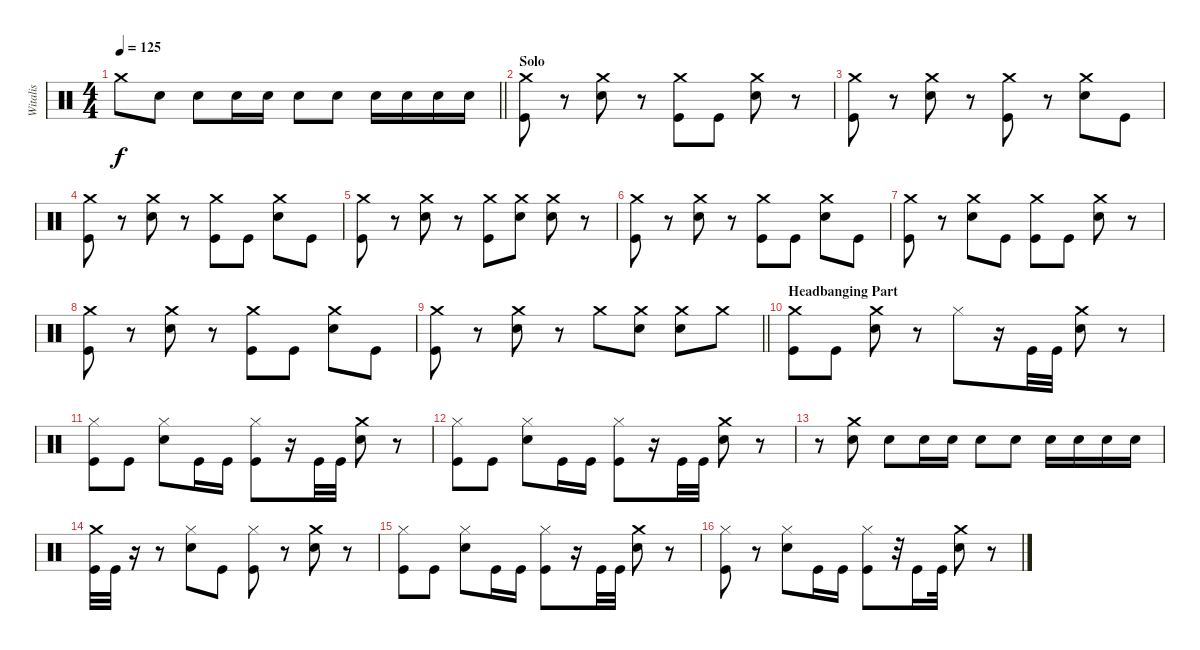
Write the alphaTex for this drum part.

\track ("Witalis" "Witalis") {instrument percussion}
\staff {score}
\articulation defaults
\ts (4 4)
\tempo 125
\clef neutral
\barLineRight lightlight
\ks c "Crash medium (hit)".8{dy f} "Snare (hit) 2".8 "Snare (hit) 2".8 "Snare (hit) 2".16 "Snare (hit) 2".16 "Snare (hit) 2".8 "Snare (hit) 2".8 "Snare (hit) 2".16 "Snare (hit) 2".16 "Snare (hit) 2".16 "Snare (hit) 2".16
|
\section ("" "Solo")
("Kick (hit)" "Crash medium (hit)").8 r.8 ("Snare (hit) 2" "Crash medium (hit)").8 r.8 ("Kick (hit)" "Crash medium (hit)").8 "Kick (hit)".8 ("Snare (hit) 2" "Crash medium (hit)").8 r.8 |
("Kick (hit)" "Crash medium (hit)").8 r.8 ("Snare (hit) 2" "Crash medium (hit)").8 r.8 ("Kick (hit)" "Crash medium (hit)").8 r.8 ("Snare (hit) 2" "Crash medium (hit)").8 "Kick (hit)".8 |
("Kick (hit)" "Crash medium (hit)").8 r.8 ("Snare (hit) 2" "Crash medium (hit)").8 r.8 ("Kick (hit)" "Crash medium (hit)").8 "Kick (hit)".8 ("Snare (hit) 2" "Crash medium (hit)").8 "Kick (hit)".8 |
("Kick (hit)" "Crash medium (hit)").8 r.8 ("Snare (hit) 2" "Crash medium (hit)").8 r.8 ("Kick (hit)" "Crash medium (hit)").8 ("Snare (hit) 2" "Crash medium (hit)").8 ("Snare (hit) 2" "Crash medium (hit)").8 r.8 |
("Kick (hit)" "Crash medium (hit)").8 r.8 ("Snare (hit) 2" "Crash medium (hit)").8 r.8 ("Kick (hit)" "Crash medium (hit)").8 "Kick (hit)".8 ("Snare (hit) 2" "Crash medium (hit)").8 "Kick (hit)".8 |
("Kick (hit)" "Crash medium (hit)").8 r.8 ("Snare (hit) 2" "Crash medium (hit)").8 "Kick (hit)".8 ("Kick (hit)" "Crash medium (hit)").8 "Kick (hit)".8 ("Snare (hit) 2" "Crash medium (hit)").8 r.8 |
("Kick (hit)" "Crash medium (hit)").8 r.8 ("Snare (hit) 2" "Crash medium (hit)").8 r.8 ("Kick (hit)" "Crash medium (hit)").8 "Kick (hit)".8 ("Snare (hit) 2" "Crash medium (hit)").8 "Kick (hit)".8 |
\barLineRight lightlight
("Kick (hit)" "Crash medium (hit)").8 r.8 ("Snare (hit) 2" "Crash medium (hit)").8 r.8 "Crash medium (hit)".8 ("Snare (hit) 2" "Crash medium (hit)").8 ("Snare (hit) 2" "Crash medium (hit)").8 "Crash medium (hit)".8 |
\section ("" "Headbanging Part")
("Kick (hit)" "Crash medium (hit)").8 "Kick (hit)".8 ("Snare (hit) 2" "Crash medium (hit)").8 r.8 "Hi-Hat (closed)".8 r.16 "Kick (hit)".32 "Kick (hit)".32 ("Snare (hit) 2" "Crash medium (hit)").8 r.8 |
("Hi-Hat (closed)" "Kick (hit)").8 "Kick (hit)".8 ("Hi-Hat (closed)" "Snare (hit) 2").8 "Kick (hit)".16 "Kick (hit)".16 ("Hi-Hat (closed)" "Kick (hit)").8 r.16 "Kick (hit)".32 "Kick (hit)".32 ("Snare (hit) 2" "Crash medium (hit)").8 r.8 |
("Hi-Hat (closed)" "Kick (hit)").8 "Kick (hit)".8 ("Hi-Hat (closed)" "Snare (hit) 2").8 "Kick (hit)".16 "Kick (hit)".16 ("Hi-Hat (closed)" "Kick (hit)").8 r.16 "Kick (hit)".32 "Kick (hit)".32 ("Snare (hit) 2" "Crash medium (hit)").8 r.8 |
r.8 ("Snare (hit) 2" "Crash medium (hit)").8 "Snare (hit) 2".8 "Snare (hit) 2".16 "Snare (hit) 2".16 "Snare (hit) 2".8 "Snare (hit) 2".8 "Snare (hit) 2".16 "Snare (hit) 2".16 "Snare (hit) 2".16 "Snare (hit) 2".16 |
("Kick (hit)" "Crash medium (hit)").32 "Kick (hit)".32 r.16 r.8 ("Hi-Hat (closed)" "Snare (hit) 2").8 "Kick (hit)".8 ("Hi-Hat (closed)" "Kick (hit)").8 r.8 ("Snare (hit) 2" "Crash medium (hit)").8 r.8 |
("Hi-Hat (closed)" "Kick (hit)").8 "Kick (hit)".8 ("Hi-Hat (closed)" "Snare (hit) 2").8 "Kick (hit)".16 "Kick (hit)".16 ("Hi-Hat (closed)" "Kick (hit)").8 r.16 "Kick (hit)".32 "Kick (hit)".32 ("Snare (hit) 2" "Crash medium (hit)").8 r.8 |
("Hi-Hat (closed)" "Kick (hit)").8 r.8 ("Hi-Hat (closed)" "Snare (hit) 2").8 "Kick (hit)".16 "Kick (hit)".16 ("Hi-Hat (closed)" "Kick (hit)").8 r.32 "Kick (hit)".16 "Kick (hit)".32 ("Snare (hit) 2" "Crash medium (hit)").8 r.8
